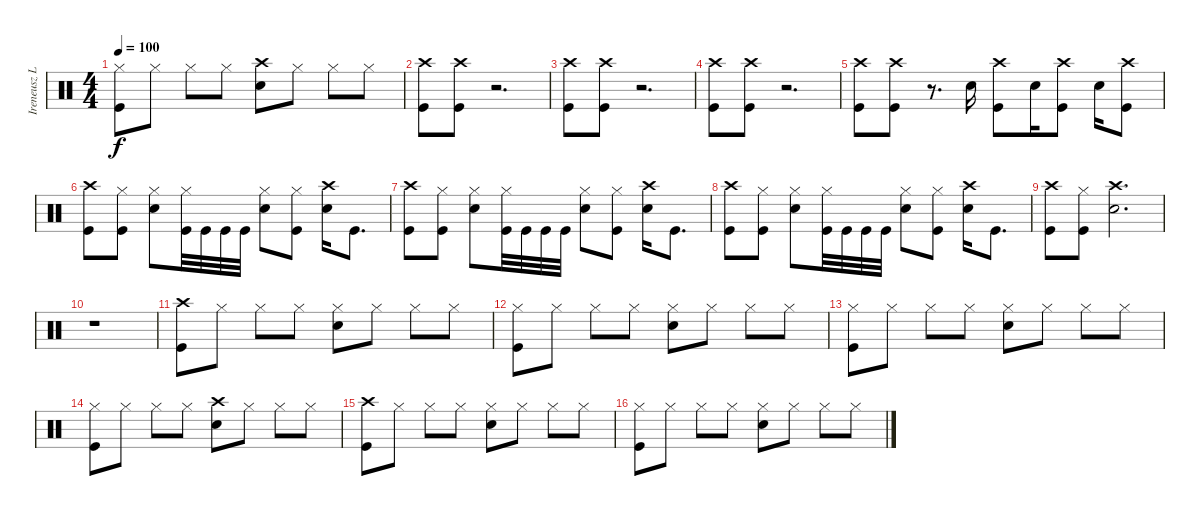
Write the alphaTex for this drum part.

\track ("Ireneusz Loth" "Ireneusz L") {instrument percussion}
\staff {score}
\articulation defaults
\ts (4 4)
\tempo 100
\clef neutral
\ks c
("Hi-Hat (closed)" "Kick (hit)").8{dy f} "Hi-Hat (closed)".8 "Hi-Hat (closed)".8 "Hi-Hat (closed)".8 ("Crash high (hit)" "Snare (hit) 2").8 "Hi-Hat (closed)".8 "Hi-Hat (closed)".8 "Hi-Hat (closed)".8 |
("Kick (hit)" "Crash high (hit)").8 ("Kick (hit)" "Crash high (hit)").8 r.2{d} |
("Kick (hit)" "Crash high (hit)").8 ("Kick (hit)" "Crash high (hit)").8 r.2{d} |
("Kick (hit)" "Crash high (hit)").8 ("Kick (hit)" "Crash high (hit)").8 r.2{d} |
("Kick (hit)" "Crash high (hit)").8 ("Kick (hit)" "Crash high (hit)").8 r.8{d} "Snare (hit) 2".16 ("Crash high (hit)" "Kick (hit)").8 "Snare (hit) 2".16 ("Crash high (hit)" "Kick (hit)").8 "Snare (hit) 2".16 ("Crash high (hit)" "Kick (hit)").8 |
("Crash high (hit)" "Kick (hit)").8 ("Hi-Hat (closed)" "Kick (hit)").8 ("Snare (hit) 2" "Hi-Hat (closed)").8 ("Hi-Hat (closed)" "Kick (hit)").32 "Kick (hit)".32 "Kick (hit)".32 "Kick (hit)".32 ("Snare (hit) 2" "Hi-Hat (closed)").8 ("Kick (hit)" "Hi-Hat (closed)").8 ("Crash high (hit)" "Snare (hit) 2").16 "Kick (hit)".8{d} |
("Crash high (hit)" "Kick (hit)").8 ("Hi-Hat (closed)" "Kick (hit)").8 ("Snare (hit) 2" "Hi-Hat (closed)").8 ("Hi-Hat (closed)" "Kick (hit)").32 "Kick (hit)".32 "Kick (hit)".32 "Kick (hit)".32 ("Snare (hit) 2" "Hi-Hat (closed)").8 ("Kick (hit)" "Hi-Hat (closed)").8 ("Crash high (hit)" "Snare (hit) 2").16 "Kick (hit)".8{d} |
("Crash high (hit)" "Kick (hit)").8 ("Hi-Hat (closed)" "Kick (hit)").8 ("Snare (hit) 2" "Hi-Hat (closed)").8 ("Hi-Hat (closed)" "Kick (hit)").32 "Kick (hit)".32 "Kick (hit)".32 "Kick (hit)".32 ("Snare (hit) 2" "Hi-Hat (closed)").8 ("Kick (hit)" "Hi-Hat (closed)").8 ("Crash high (hit)" "Snare (hit) 2").16 "Kick (hit)".8{d} |
("Crash high (hit)" "Kick (hit)").8 ("Hi-Hat (closed)" "Kick (hit)").8 ("Snare (hit) 2" "Crash high (hit)").2{d} |
r.1 |
("Crash high (hit)" "Kick (hit)").8 "Hi-Hat (closed)".8 "Hi-Hat (closed)".8 "Hi-Hat (closed)".8 ("Hi-Hat (closed)" "Snare (hit) 2").8 "Hi-Hat (closed)".8 "Hi-Hat (closed)".8 "Hi-Hat (closed)".8 |
("Hi-Hat (closed)" "Kick (hit)").8 "Hi-Hat (closed)".8 "Hi-Hat (closed)".8 "Hi-Hat (closed)".8 ("Hi-Hat (closed)" "Snare (hit) 2").8 "Hi-Hat (closed)".8 "Hi-Hat (closed)".8 "Hi-Hat (closed)".8 |
("Hi-Hat (closed)" "Kick (hit)").8 "Hi-Hat (closed)".8 "Hi-Hat (closed)".8 "Hi-Hat (closed)".8 ("Hi-Hat (closed)" "Snare (hit) 2").8 "Hi-Hat (closed)".8 "Hi-Hat (closed)".8 "Hi-Hat (closed)".8 |
("Hi-Hat (closed)" "Kick (hit)").8 "Hi-Hat (closed)".8 "Hi-Hat (closed)".8 "Hi-Hat (closed)".8 ("Crash high (hit)" "Snare (hit) 2").8 "Hi-Hat (closed)".8 "Hi-Hat (closed)".8 "Hi-Hat (closed)".8 |
("Crash high (hit)" "Kick (hit)").8 "Hi-Hat (closed)".8 "Hi-Hat (closed)".8 "Hi-Hat (closed)".8 ("Hi-Hat (closed)" "Snare (hit) 2").8 "Hi-Hat (closed)".8 "Hi-Hat (closed)".8 "Hi-Hat (closed)".8 |
("Hi-Hat (closed)" "Kick (hit)").8 "Hi-Hat (closed)".8 "Hi-Hat (closed)".8 "Hi-Hat (closed)".8 ("Hi-Hat (closed)" "Snare (hit) 2").8 "Hi-Hat (closed)".8 "Hi-Hat (closed)".8 "Hi-Hat (closed)".8
